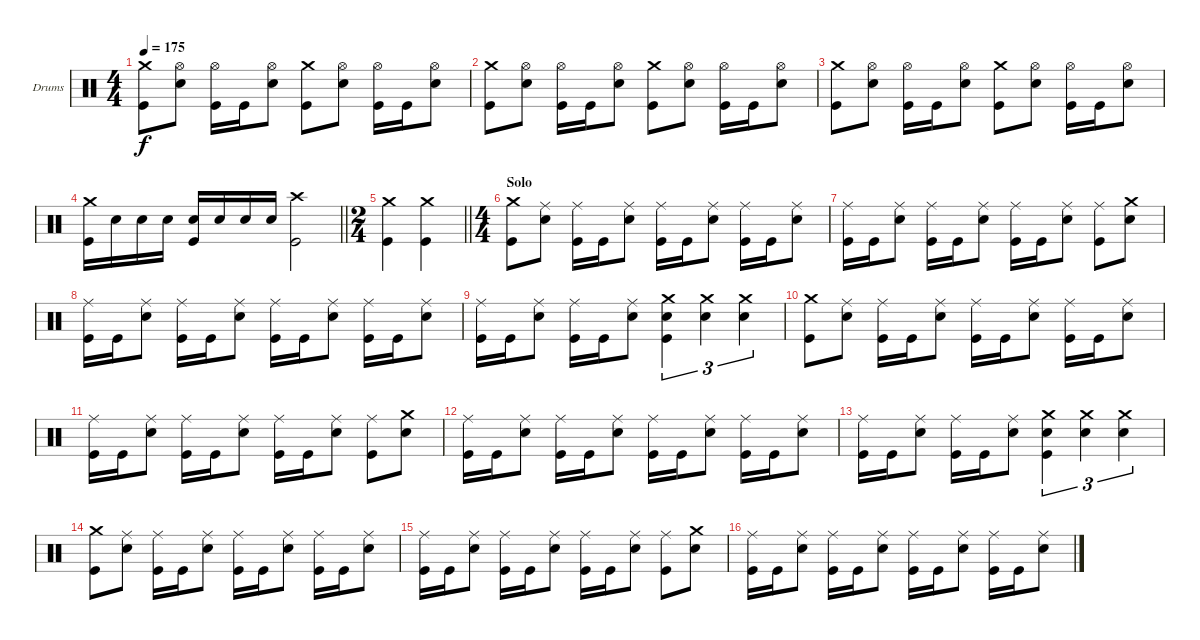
\bracketExtendMode groupsimilarinstruments
\firstSystemTrackNameOrientation horizontal
\otherSystemsTrackNameOrientation horizontal
\track ("Drums" "Drums") {instrument percussion}
\staff {score}
\articulation defaults
\ts (4 4)
\tempo 175
\clef neutral
\ks c
("Crash medium (hit)" "Kick (hit)").8{dy f} ("Hi-Hat (open)" "Snare (hit) 2").8 ("Hi-Hat (open)" "Kick (hit)").16 "Kick (hit)".16 ("Hi-Hat (open)" "Snare (hit) 2").8 ("Kick (hit)" "Crash medium (hit)").8 ("Hi-Hat (open)" "Snare (hit) 2").8 ("Hi-Hat (open)" "Kick (hit)").16 "Kick (hit)".16 ("Hi-Hat (open)" "Snare (hit) 2").8 |
("Crash medium (hit)" "Kick (hit)").8 ("Hi-Hat (open)" "Snare (hit) 2").8 ("Hi-Hat (open)" "Kick (hit)").16 "Kick (hit)".16 ("Hi-Hat (open)" "Snare (hit) 2").8 ("Kick (hit)" "Crash medium (hit)").8 ("Hi-Hat (open)" "Snare (hit) 2").8 ("Hi-Hat (open)" "Kick (hit)").16 "Kick (hit)".16 ("Hi-Hat (open)" "Snare (hit) 2").8 |
("Crash medium (hit)" "Kick (hit)").8 ("Hi-Hat (open)" "Snare (hit) 2").8 ("Hi-Hat (open)" "Kick (hit)").16 "Kick (hit)".16 ("Hi-Hat (open)" "Snare (hit) 2").8 ("Kick (hit)" "Crash medium (hit)").8 ("Hi-Hat (open)" "Snare (hit) 2").8 ("Hi-Hat (open)" "Kick (hit)").16 "Kick (hit)".16 ("Hi-Hat (open)" "Snare (hit) 2").8 |
\barLineRight lightlight
("Crash medium (hit)" "Kick (hit)").16 "Snare (hit) 2".16 "Snare (hit) 2".16 "Snare (hit) 2".16 ("Snare (hit) 2" "Kick (hit)").16 "Snare (hit) 2".16 "Snare (hit) 2".16 "Snare (hit) 2".16 ("Kick (hit)" "Crash high (hit)").2 |
\ts (2 4)
\beaming (8 2 2)
\barLineRight lightlight
("Kick (hit)" "Crash medium (hit)").4 ("Kick (hit)" "Crash medium (hit)").4 |
\ts (4 4)
\beaming (8 2 2 2 2)
\section ("" "Solo")
("Kick (hit)" "Crash medium (hit)").8 ("Snare (hit) 2" "Ride (middle)").8 ("Kick (hit)" "Ride (middle)").16 "Kick (hit)".16 ("Snare (hit) 2" "Ride (middle)").8 ("Kick (hit)" "Ride (middle)").16 "Kick (hit)".16 ("Snare (hit) 2" "Ride (middle)").8 ("Kick (hit)" "Ride (middle)").16 "Kick (hit)".16 ("Snare (hit) 2" "Ride (middle)").8 |
("Kick (hit)" "Ride (middle)").16 "Kick (hit)".16 ("Snare (hit) 2" "Ride (middle)").8 ("Kick (hit)" "Ride (middle)").16 "Kick (hit)".16 ("Snare (hit) 2" "Ride (middle)").8 ("Kick (hit)" "Ride (middle)").16 "Kick (hit)".16 ("Snare (hit) 2" "Ride (middle)").8 ("Kick (hit)" "Ride (middle)").8 ("Snare (hit) 2" "Crash medium (hit)").8 |
("Kick (hit)" "Ride (middle)").16 "Kick (hit)".16 ("Snare (hit) 2" "Ride (middle)").8 ("Kick (hit)" "Ride (middle)").16 "Kick (hit)".16 ("Snare (hit) 2" "Ride (middle)").8 ("Kick (hit)" "Ride (middle)").16 "Kick (hit)".16 ("Snare (hit) 2" "Ride (middle)").8 ("Kick (hit)" "Ride (middle)").16 "Kick (hit)".16 ("Snare (hit) 2" "Ride (middle)").8 |
("Kick (hit)" "Ride (middle)").16 "Kick (hit)".16 ("Snare (hit) 2" "Ride (middle)").8 ("Kick (hit)" "Ride (middle)").16 "Kick (hit)".16 ("Snare (hit) 2" "Ride (middle)").8 ("Snare (hit) 2" "Crash medium (hit)" "Kick (hit)").4{tu (3 2)} ("Snare (hit) 2" "Crash medium (hit)").4{tu (3 2)} ("Snare (hit) 2" "Crash medium (hit)").4{tu (3 2)} |
("Kick (hit)" "Crash medium (hit)").8 ("Snare (hit) 2" "Ride (middle)").8 ("Kick (hit)" "Ride (middle)").16 "Kick (hit)".16 ("Snare (hit) 2" "Ride (middle)").8 ("Kick (hit)" "Ride (middle)").16 "Kick (hit)".16 ("Snare (hit) 2" "Ride (middle)").8 ("Kick (hit)" "Ride (middle)").16 "Kick (hit)".16 ("Snare (hit) 2" "Ride (middle)").8 |
("Kick (hit)" "Ride (middle)").16 "Kick (hit)".16 ("Snare (hit) 2" "Ride (middle)").8 ("Kick (hit)" "Ride (middle)").16 "Kick (hit)".16 ("Snare (hit) 2" "Ride (middle)").8 ("Kick (hit)" "Ride (middle)").16 "Kick (hit)".16 ("Snare (hit) 2" "Ride (middle)").8 ("Kick (hit)" "Ride (middle)").8 ("Snare (hit) 2" "Crash medium (hit)").8 |
("Kick (hit)" "Ride (middle)").16 "Kick (hit)".16 ("Snare (hit) 2" "Ride (middle)").8 ("Kick (hit)" "Ride (middle)").16 "Kick (hit)".16 ("Snare (hit) 2" "Ride (middle)").8 ("Kick (hit)" "Ride (middle)").16 "Kick (hit)".16 ("Snare (hit) 2" "Ride (middle)").8 ("Kick (hit)" "Ride (middle)").16 "Kick (hit)".16 ("Snare (hit) 2" "Ride (middle)").8 |
("Kick (hit)" "Ride (middle)").16 "Kick (hit)".16 ("Snare (hit) 2" "Ride (middle)").8 ("Kick (hit)" "Ride (middle)").16 "Kick (hit)".16 ("Snare (hit) 2" "Ride (middle)").8 ("Snare (hit) 2" "Crash medium (hit)" "Kick (hit)").4{tu (3 2)} ("Snare (hit) 2" "Crash medium (hit)").4{tu (3 2)} ("Snare (hit) 2" "Crash medium (hit)").4{tu (3 2)} |
("Kick (hit)" "Crash medium (hit)").8 ("Snare (hit) 2" "Ride (middle)").8 ("Kick (hit)" "Ride (middle)").16 "Kick (hit)".16 ("Snare (hit) 2" "Ride (middle)").8 ("Kick (hit)" "Ride (middle)").16 "Kick (hit)".16 ("Snare (hit) 2" "Ride (middle)").8 ("Kick (hit)" "Ride (middle)").16 "Kick (hit)".16 ("Snare (hit) 2" "Ride (middle)").8 |
("Kick (hit)" "Ride (middle)").16 "Kick (hit)".16 ("Snare (hit) 2" "Ride (middle)").8 ("Kick (hit)" "Ride (middle)").16 "Kick (hit)".16 ("Snare (hit) 2" "Ride (middle)").8 ("Kick (hit)" "Ride (middle)").16 "Kick (hit)".16 ("Snare (hit) 2" "Ride (middle)").8 ("Kick (hit)" "Ride (middle)").8 ("Snare (hit) 2" "Crash medium (hit)").8 |
("Kick (hit)" "Ride (middle)").16 "Kick (hit)".16 ("Snare (hit) 2" "Ride (middle)").8 ("Kick (hit)" "Ride (middle)").16 "Kick (hit)".16 ("Snare (hit) 2" "Ride (middle)").8 ("Kick (hit)" "Ride (middle)").16 "Kick (hit)".16 ("Snare (hit) 2" "Ride (middle)").8 ("Kick (hit)" "Ride (middle)").16 "Kick (hit)".16 ("Snare (hit) 2" "Ride (middle)").8
